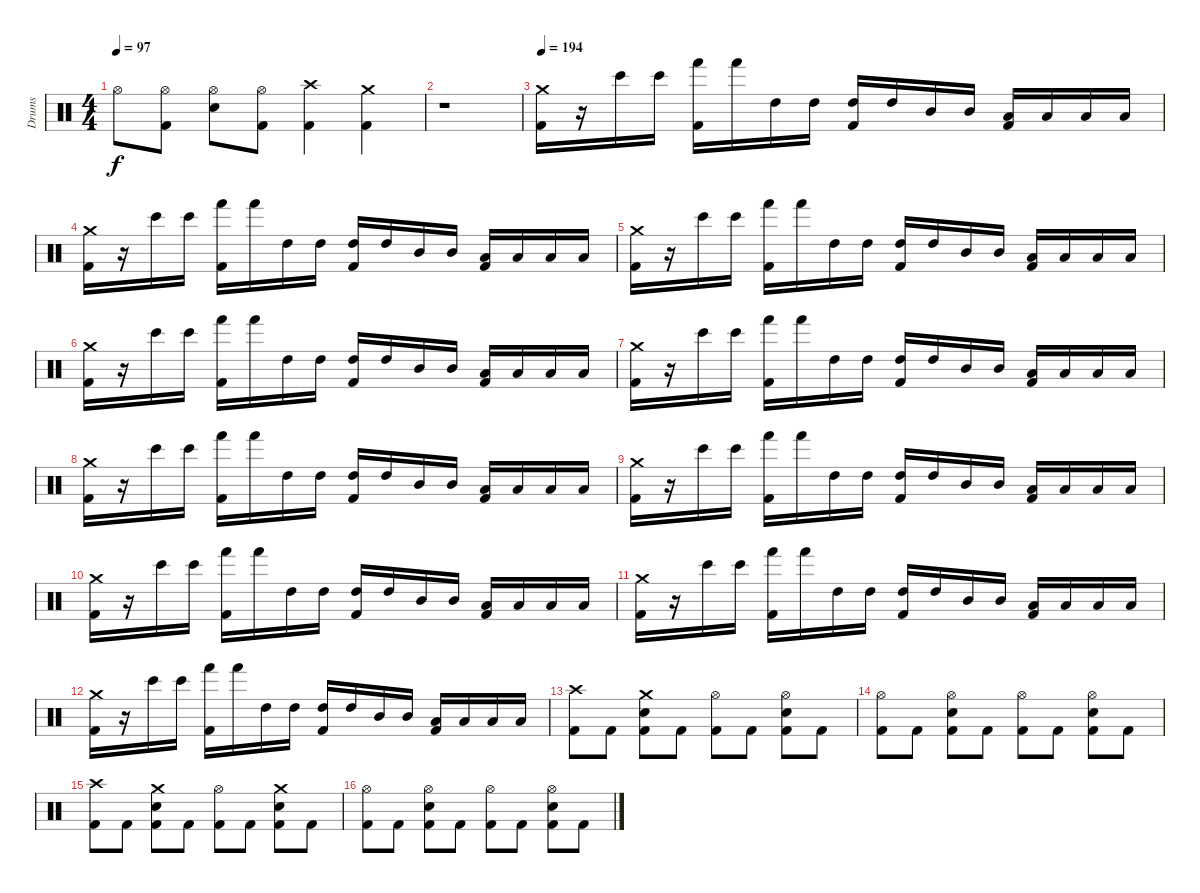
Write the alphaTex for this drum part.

\track ("Drums" "Drums") {instrument percussion}
\staff {score}
\articulation defaults
\ts (4 4)
\tempo 97
\clef neutral
\ks c "Hi-Hat (open)".8{dy f}
("Hi-Hat (open)" "Kick (hit) 2").8 ("Hi-Hat (open)" "Electric Snare (hit)").8 ("Hi-Hat (open)" "Kick (hit) 2").8 ("Crash high (hit)" "Kick (hit) 2").4 ("Crash medium (hit)" "Kick (hit) 2").4 |
r.1 |
\tempo 194
("Crash medium (hit)" "Kick (hit) 2").16 r.16 "Bongo High (hit)".16 "Bongo High (hit)".16 ("Hand (hit)" "Kick (hit) 2").16 "Hand (hit)".16 "High Tom (hit)".16 "High Tom (hit)".16 ("High Tom (hit)" "Kick (hit) 2").16 "High Tom (hit)".16 "Mid Tom (hit)".16 "Mid Tom (hit)".16 ("Low Tom (hit)" "Kick (hit) 2").16 "Low Tom (hit)".16 "Low Tom (hit)".16 "Low Tom (hit)".16 |
("Crash medium (hit)" "Kick (hit) 2").16 r.16 "Bongo High (hit)".16 "Bongo High (hit)".16 ("Hand (hit)" "Kick (hit) 2").16 "Hand (hit)".16 "High Tom (hit)".16 "High Tom (hit)".16 ("High Tom (hit)" "Kick (hit) 2").16 "High Tom (hit)".16 "Mid Tom (hit)".16 "Mid Tom (hit)".16 ("Low Tom (hit)" "Kick (hit) 2").16 "Low Tom (hit)".16 "Low Tom (hit)".16 "Low Tom (hit)".16 |
("Crash medium (hit)" "Kick (hit) 2").16 r.16 "Bongo High (hit)".16 "Bongo High (hit)".16 ("Hand (hit)" "Kick (hit) 2").16 "Hand (hit)".16 "High Tom (hit)".16 "High Tom (hit)".16 ("High Tom (hit)" "Kick (hit) 2").16 "High Tom (hit)".16 "Mid Tom (hit)".16 "Mid Tom (hit)".16 ("Low Tom (hit)" "Kick (hit) 2").16 "Low Tom (hit)".16 "Low Tom (hit)".16 "Low Tom (hit)".16 |
("Crash medium (hit)" "Kick (hit) 2").16 r.16 "Bongo High (hit)".16 "Bongo High (hit)".16 ("Hand (hit)" "Kick (hit) 2").16 "Hand (hit)".16 "High Tom (hit)".16 "High Tom (hit)".16 ("High Tom (hit)" "Kick (hit) 2").16 "High Tom (hit)".16 "Mid Tom (hit)".16 "Mid Tom (hit)".16 ("Low Tom (hit)" "Kick (hit) 2").16 "Low Tom (hit)".16 "Low Tom (hit)".16 "Low Tom (hit)".16 |
("Crash medium (hit)" "Kick (hit) 2").16 r.16 "Bongo High (hit)".16 "Bongo High (hit)".16 ("Hand (hit)" "Kick (hit) 2").16 "Hand (hit)".16 "High Tom (hit)".16 "High Tom (hit)".16 ("High Tom (hit)" "Kick (hit) 2").16 "High Tom (hit)".16 "Mid Tom (hit)".16 "Mid Tom (hit)".16 ("Low Tom (hit)" "Kick (hit) 2").16 "Low Tom (hit)".16 "Low Tom (hit)".16 "Low Tom (hit)".16 |
("Crash medium (hit)" "Kick (hit) 2").16 r.16 "Bongo High (hit)".16 "Bongo High (hit)".16 ("Hand (hit)" "Kick (hit) 2").16 "Hand (hit)".16 "High Tom (hit)".16 "High Tom (hit)".16 ("High Tom (hit)" "Kick (hit) 2").16 "High Tom (hit)".16 "Mid Tom (hit)".16 "Mid Tom (hit)".16 ("Low Tom (hit)" "Kick (hit) 2").16 "Low Tom (hit)".16 "Low Tom (hit)".16 "Low Tom (hit)".16 |
("Crash medium (hit)" "Kick (hit) 2").16 r.16 "Bongo High (hit)".16 "Bongo High (hit)".16 ("Hand (hit)" "Kick (hit) 2").16 "Hand (hit)".16 "High Tom (hit)".16 "High Tom (hit)".16 ("High Tom (hit)" "Kick (hit) 2").16 "High Tom (hit)".16 "Mid Tom (hit)".16 "Mid Tom (hit)".16 ("Low Tom (hit)" "Kick (hit) 2").16 "Low Tom (hit)".16 "Low Tom (hit)".16 "Low Tom (hit)".16 |
("Crash medium (hit)" "Kick (hit) 2").16 r.16 "Bongo High (hit)".16 "Bongo High (hit)".16 ("Hand (hit)" "Kick (hit) 2").16 "Hand (hit)".16 "High Tom (hit)".16 "High Tom (hit)".16 ("High Tom (hit)" "Kick (hit) 2").16 "High Tom (hit)".16 "Mid Tom (hit)".16 "Mid Tom (hit)".16 ("Low Tom (hit)" "Kick (hit) 2").16 "Low Tom (hit)".16 "Low Tom (hit)".16 "Low Tom (hit)".16 |
("Crash medium (hit)" "Kick (hit) 2").16 r.16 "Bongo High (hit)".16 "Bongo High (hit)".16 ("Hand (hit)" "Kick (hit) 2").16 "Hand (hit)".16 "High Tom (hit)".16 "High Tom (hit)".16 ("High Tom (hit)" "Kick (hit) 2").16 "High Tom (hit)".16 "Mid Tom (hit)".16 "Mid Tom (hit)".16 ("Low Tom (hit)" "Kick (hit) 2").16 "Low Tom (hit)".16 "Low Tom (hit)".16 "Low Tom (hit)".16 |
("Crash medium (hit)" "Kick (hit) 2").16 r.16 "Bongo High (hit)".16 "Bongo High (hit)".16 ("Hand (hit)" "Kick (hit) 2").16 "Hand (hit)".16 "High Tom (hit)".16 "High Tom (hit)".16 ("High Tom (hit)" "Kick (hit) 2").16 "High Tom (hit)".16 "Mid Tom (hit)".16 "Mid Tom (hit)".16 ("Low Tom (hit)" "Kick (hit) 2").16 "Low Tom (hit)".16 "Low Tom (hit)".16 "Low Tom (hit)".16 |
("Crash high (hit)" "Kick (hit) 2").8 "Kick (hit) 2".8 ("Crash medium (hit)" "Electric Snare (hit)" "Kick (hit) 2").8 "Kick (hit) 2".8 ("Hi-Hat (open)" "Kick (hit) 2").8 "Kick (hit) 2".8 ("Hi-Hat (open)" "Electric Snare (hit)" "Kick (hit) 2").8 "Kick (hit) 2".8 |
("Hi-Hat (open)" "Kick (hit) 2").8 "Kick (hit) 2".8 ("Hi-Hat (open)" "Electric Snare (hit)" "Kick (hit) 2").8 "Kick (hit) 2".8 ("Hi-Hat (open)" "Kick (hit) 2").8 "Kick (hit) 2".8 ("Hi-Hat (open)" "Electric Snare (hit)" "Kick (hit) 2").8 "Kick (hit) 2".8 |
("Crash high (hit)" "Kick (hit) 2").8 "Kick (hit) 2".8 ("Crash medium (hit)" "Electric Snare (hit)" "Kick (hit) 2").8 "Kick (hit) 2".8 ("Hi-Hat (open)" "Kick (hit) 2").8 "Kick (hit) 2".8 ("Crash medium (hit)" "Electric Snare (hit)" "Kick (hit) 2").8 "Kick (hit) 2".8 |
("Hi-Hat (open)" "Kick (hit) 2").8 "Kick (hit) 2".8 ("Hi-Hat (open)" "Electric Snare (hit)" "Kick (hit) 2").8 "Kick (hit) 2".8 ("Hi-Hat (open)" "Kick (hit) 2").8 "Kick (hit) 2".8 ("Hi-Hat (open)" "Electric Snare (hit)" "Kick (hit) 2").8 "Kick (hit) 2".8
